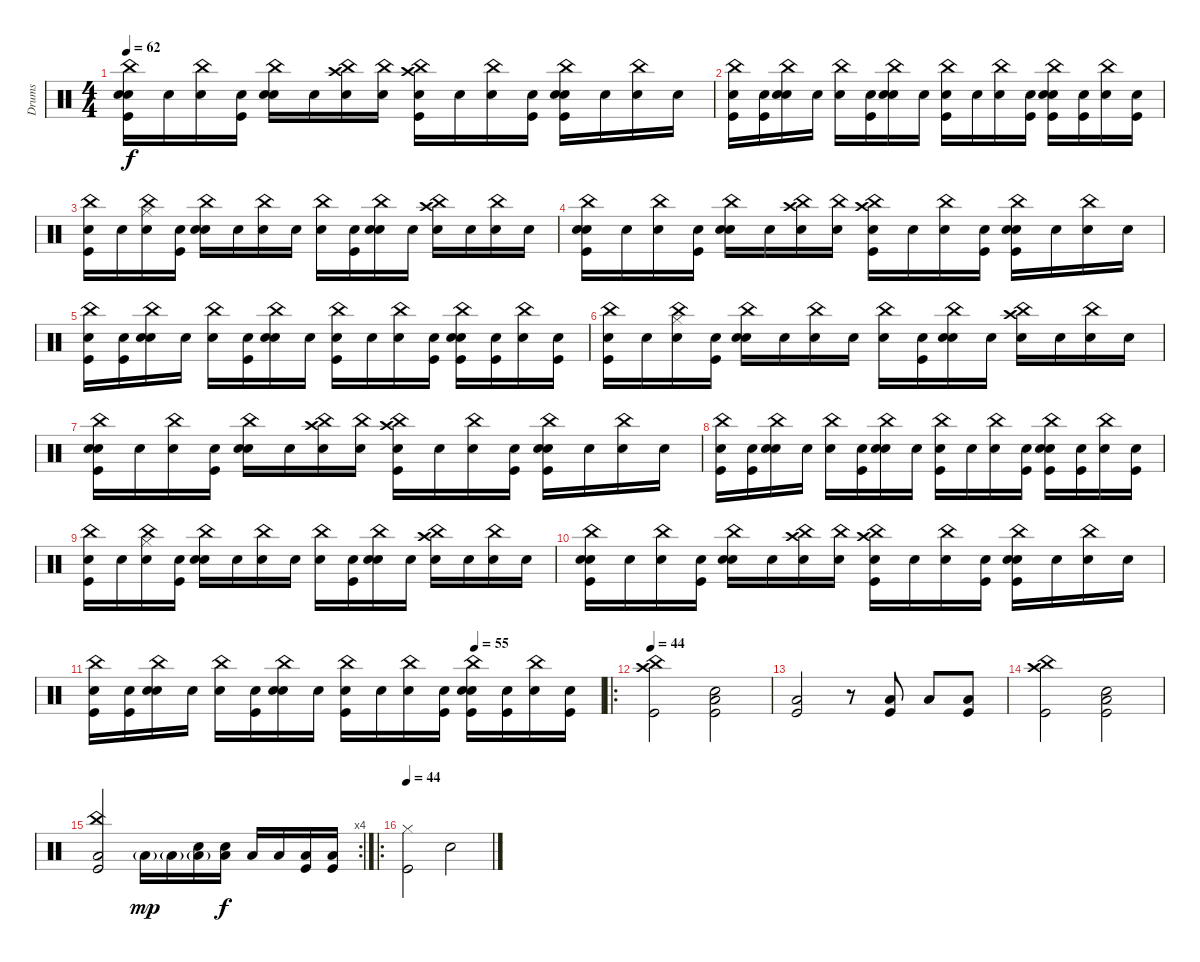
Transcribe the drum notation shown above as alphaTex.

\track ("Drums" "Drums") {instrument percussion}
\staff {score}
\articulation defaults
\ts (4 4)
\tempo 62
\clef neutral
\ks c
("Snare (hit)" "Snare (hit) 2" "Kick (hit)" "China (hit)").16{dy f} "Snare (hit)".16 ("Snare (hit)" "China (hit)").16 ("Snare (hit)" "Kick (hit)").16 ("Snare (hit)" "Snare (hit) 2" "China (hit)").16 "Snare (hit)".16 ("Snare (hit)" "Crash high (hit)" "China (hit)").16 ("Snare (hit)" "China (hit)").16 ("Snare (hit)" "Crash high (hit)" "Kick (hit)" "China (hit)").16 "Snare (hit)".16 ("Snare (hit)" "China (hit)").16 ("Snare (hit)" "Kick (hit)").16 ("Snare (hit)" "Snare (hit) 2" "Kick (hit)" "China (hit)").16 "Snare (hit)".16 ("Snare (hit)" "China (hit)").16 "Snare (hit)".16 |
("Snare (hit)" "Kick (hit)" "China (hit)").16 ("Snare (hit)" "Kick (hit)").16 ("Snare (hit)" "Snare (hit) 2" "China (hit)").16 "Snare (hit)".16 ("Snare (hit)" "China (hit)").16 ("Snare (hit)" "Kick (hit)").16 ("Snare (hit)" "Snare (hit) 2" "China (hit)").16 "Snare (hit)".16 ("Snare (hit)" "Kick (hit)" "China (hit)").16 "Snare (hit)".16 ("Snare (hit)" "China (hit)").16 ("Snare (hit)" "Kick (hit)").16 ("Snare (hit)" "Snare (hit) 2" "Kick (hit)" "China (hit)").16 ("Snare (hit)" "Kick (hit)").16 ("Snare (hit)" "China (hit)").16 ("Snare (hit)" "Kick (hit)").16 |
("Snare (hit)" "China (hit)" "Kick (hit)").16 "Snare (hit)".16 ("Snare (hit)" "Hi-Hat (closed)" "China (hit)").16 ("Snare (hit)" "Kick (hit)").16 ("Snare (hit)" "Snare (hit) 2" "China (hit)").16 "Snare (hit)".16 ("Snare (hit)" "China (hit)").16 "Snare (hit)".16 ("Snare (hit)" "China (hit)").16 ("Snare (hit)" "Kick (hit)").16 ("Snare (hit)" "Snare (hit) 2" "China (hit)").16 "Snare (hit)".16 ("Snare (hit)" "Crash high (hit)" "China (hit)").16 "Snare (hit)".16 ("Snare (hit)" "China (hit)").16 "Snare (hit)".16 |
("Snare (hit)" "Snare (hit) 2" "Kick (hit)" "China (hit)").16 "Snare (hit)".16 ("Snare (hit)" "China (hit)").16 ("Snare (hit)" "Kick (hit)").16 ("Snare (hit)" "Snare (hit) 2" "China (hit)").16 "Snare (hit)".16 ("Snare (hit)" "Crash high (hit)" "China (hit)").16 ("Snare (hit)" "China (hit)").16 ("Snare (hit)" "Crash high (hit)" "Kick (hit)" "China (hit)").16 "Snare (hit)".16 ("Snare (hit)" "China (hit)").16 ("Snare (hit)" "Kick (hit)").16 ("Snare (hit)" "Snare (hit) 2" "Kick (hit)" "China (hit)").16 "Snare (hit)".16 ("Snare (hit)" "China (hit)").16 "Snare (hit)".16 |
("Snare (hit)" "Kick (hit)" "China (hit)").16 ("Snare (hit)" "Kick (hit)").16 ("Snare (hit)" "Snare (hit) 2" "China (hit)").16 "Snare (hit)".16 ("Snare (hit)" "China (hit)").16 ("Snare (hit)" "Kick (hit)").16 ("Snare (hit)" "Snare (hit) 2" "China (hit)").16 "Snare (hit)".16 ("Snare (hit)" "Kick (hit)" "China (hit)").16 "Snare (hit)".16 ("Snare (hit)" "China (hit)").16 ("Snare (hit)" "Kick (hit)").16 ("Snare (hit)" "Snare (hit) 2" "Kick (hit)" "China (hit)").16 ("Snare (hit)" "Kick (hit)").16 ("Snare (hit)" "China (hit)").16 ("Snare (hit)" "Kick (hit)").16 |
("Snare (hit)" "China (hit)" "Kick (hit)").16 "Snare (hit)".16 ("Snare (hit)" "Hi-Hat (closed)" "China (hit)").16 ("Snare (hit)" "Kick (hit)").16 ("Snare (hit)" "Snare (hit) 2" "China (hit)").16 "Snare (hit)".16 ("Snare (hit)" "China (hit)").16 "Snare (hit)".16 ("Snare (hit)" "China (hit)").16 ("Snare (hit)" "Kick (hit)").16 ("Snare (hit)" "Snare (hit) 2" "China (hit)").16 "Snare (hit)".16 ("Snare (hit)" "Crash high (hit)" "China (hit)").16 "Snare (hit)".16 ("Snare (hit)" "China (hit)").16 "Snare (hit)".16 |
("Snare (hit)" "Snare (hit) 2" "Kick (hit)" "China (hit)").16 "Snare (hit)".16 ("Snare (hit)" "China (hit)").16 ("Snare (hit)" "Kick (hit)").16 ("Snare (hit)" "Snare (hit) 2" "China (hit)").16 "Snare (hit)".16 ("Snare (hit)" "Crash high (hit)" "China (hit)").16 ("Snare (hit)" "China (hit)").16 ("Snare (hit)" "Crash high (hit)" "Kick (hit)" "China (hit)").16 "Snare (hit)".16 ("Snare (hit)" "China (hit)").16 ("Snare (hit)" "Kick (hit)").16 ("Snare (hit)" "Snare (hit) 2" "Kick (hit)" "China (hit)").16 "Snare (hit)".16 ("Snare (hit)" "China (hit)").16 "Snare (hit)".16 |
("Snare (hit)" "Kick (hit)" "China (hit)").16 ("Snare (hit)" "Kick (hit)").16 ("Snare (hit)" "Snare (hit) 2" "China (hit)").16 "Snare (hit)".16 ("Snare (hit)" "China (hit)").16 ("Snare (hit)" "Kick (hit)").16 ("Snare (hit)" "Snare (hit) 2" "China (hit)").16 "Snare (hit)".16 ("Snare (hit)" "Kick (hit)" "China (hit)").16 "Snare (hit)".16 ("Snare (hit)" "China (hit)").16 ("Snare (hit)" "Kick (hit)").16 ("Snare (hit)" "Snare (hit) 2" "Kick (hit)" "China (hit)").16 ("Snare (hit)" "Kick (hit)").16 ("Snare (hit)" "China (hit)").16 ("Snare (hit)" "Kick (hit)").16 |
("Snare (hit)" "China (hit)" "Kick (hit)").16 "Snare (hit)".16 ("Snare (hit)" "Hi-Hat (closed)" "China (hit)").16 ("Snare (hit)" "Kick (hit)").16 ("Snare (hit)" "Snare (hit) 2" "China (hit)").16 "Snare (hit)".16 ("Snare (hit)" "China (hit)").16 "Snare (hit)".16 ("Snare (hit)" "China (hit)").16 ("Snare (hit)" "Kick (hit)").16 ("Snare (hit)" "Snare (hit) 2" "China (hit)").16 "Snare (hit)".16 ("Snare (hit)" "Crash high (hit)" "China (hit)").16 "Snare (hit)".16 ("Snare (hit)" "China (hit)").16 "Snare (hit)".16 |
("Snare (hit)" "Snare (hit) 2" "Kick (hit)" "China (hit)").16 "Snare (hit)".16 ("Snare (hit)" "China (hit)").16 ("Snare (hit)" "Kick (hit)").16 ("Snare (hit)" "Snare (hit) 2" "China (hit)").16 "Snare (hit)".16 ("Snare (hit)" "Crash high (hit)" "China (hit)").16 ("Snare (hit)" "China (hit)").16 ("Snare (hit)" "Crash high (hit)" "Kick (hit)" "China (hit)").16 "Snare (hit)".16 ("Snare (hit)" "China (hit)").16 ("Snare (hit)" "Kick (hit)").16 ("Snare (hit)" "Snare (hit) 2" "Kick (hit)" "China (hit)").16 "Snare (hit)".16 ("Snare (hit)" "China (hit)").16 "Snare (hit)".16 |
\tempo (55 0.75)
("Snare (hit)" "Kick (hit)" "China (hit)").16 ("Snare (hit)" "Kick (hit)").16 ("Snare (hit)" "Snare (hit) 2" "China (hit)").16 "Snare (hit)".16 ("Snare (hit)" "China (hit)").16 ("Snare (hit)" "Kick (hit)").16 ("Snare (hit)" "Snare (hit) 2" "China (hit)").16 "Snare (hit)".16 ("Snare (hit)" "Kick (hit)" "China (hit)").16 "Snare (hit)".16 ("Snare (hit)" "China (hit)").16 ("Snare (hit)" "Kick (hit)").16 ("Snare (hit)" "Snare (hit) 2" "Kick (hit)" "China (hit)").16 ("Snare (hit)" "Kick (hit)").16 ("Snare (hit)" "China (hit)").16 ("Snare (hit)" "Kick (hit)").16 |
\ro
\tempo 50
\tempo 44
("China (hit)" "Crash high (hit)" "Kick (hit)").2 ("Low Floor Tom (hit)" "Kick (hit)" "Snare (hit) 2").2 |
("Low Floor Tom (hit)" "Kick (hit)").2 r.8 ("Low Floor Tom (hit)" "Kick (hit)").8 "Low Floor Tom (hit)".8 ("Low Floor Tom (hit)" "Kick (hit)").8 |
("China (hit)" "Crash high (hit)" "Kick (hit)").2 ("Low Floor Tom (hit)" "Kick (hit)" "Snare (hit) 2").2 |
\rc 4
("China (hit)" "Low Floor Tom (hit)" "Kick (hit)").2 "Low Floor Tom (hit)"{g}.16{dy mp} "Low Floor Tom (hit)"{g}.16 ("Low Floor Tom (hit)"{g} "Snare (hit) 2").16 ("Low Floor Tom (hit)" "Snare (hit) 2").16{dy f} "Low Floor Tom (hit)".16 "Low Floor Tom (hit)".16 ("Low Floor Tom (hit)" "Kick (hit)").16 ("Low Floor Tom (hit)" "Kick (hit)").16 |
\ro
\tempo 44
("Hi-Hat (closed)" "Kick (hit)").2 "Snare (hit) 2".2
